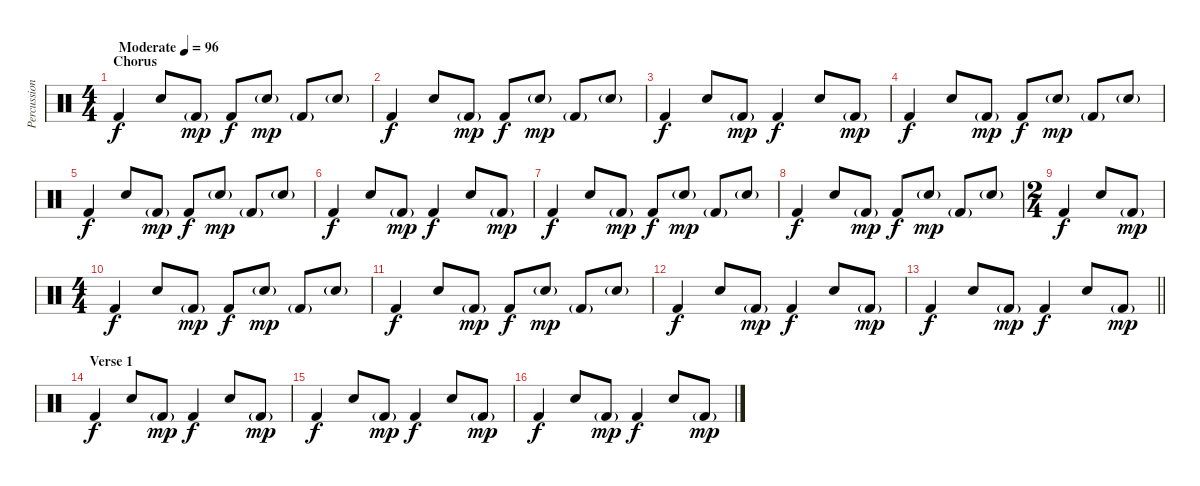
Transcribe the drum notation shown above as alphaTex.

\track ("Percussion" "Percussion") {instrument percussion}
\staff {score}
\articulation defaults
\ts (4 4)
\section ("" "Chorus")
\tempo (96 "Moderate")
\clef neutral
\ks c "Kick (hit) 2".4{dy f} "Snare (hit) 2".8 "Kick (hit) 2"{g}.8{dy mp} "Kick (hit) 2".8{dy f} "Snare (hit) 2"{g}.8{dy mp} "Kick (hit) 2"{g}.8 "Snare (hit) 2"{g}.8
|
"Kick (hit) 2".4{dy f} "Snare (hit) 2".8 "Kick (hit) 2"{g}.8{dy mp} "Kick (hit) 2".8{dy f} "Snare (hit) 2"{g}.8{dy mp} "Kick (hit) 2"{g}.8 "Snare (hit) 2"{g}.8 |
"Kick (hit) 2".4{dy f} "Snare (hit) 2".8 "Kick (hit) 2"{g}.8{dy mp} "Kick (hit) 2".4{dy f} "Snare (hit) 2".8 "Kick (hit) 2"{g}.8{dy mp} |
"Kick (hit) 2".4{dy f} "Snare (hit) 2".8 "Kick (hit) 2"{g}.8{dy mp} "Kick (hit) 2".8{dy f} "Snare (hit) 2"{g}.8{dy mp} "Kick (hit) 2"{g}.8 "Snare (hit) 2"{g}.8 |
"Kick (hit) 2".4{dy f} "Snare (hit) 2".8 "Kick (hit) 2"{g}.8{dy mp} "Kick (hit) 2".8{dy f} "Snare (hit) 2"{g}.8{dy mp} "Kick (hit) 2"{g}.8 "Snare (hit) 2"{g}.8 |
"Kick (hit) 2".4{dy f} "Snare (hit) 2".8 "Kick (hit) 2"{g}.8{dy mp} "Kick (hit) 2".4{dy f} "Snare (hit) 2".8 "Kick (hit) 2"{g}.8{dy mp} |
"Kick (hit) 2".4{dy f} "Snare (hit) 2".8 "Kick (hit) 2"{g}.8{dy mp} "Kick (hit) 2".8{dy f} "Snare (hit) 2"{g}.8{dy mp} "Kick (hit) 2"{g}.8 "Snare (hit) 2"{g}.8 |
"Kick (hit) 2".4{dy f} "Snare (hit) 2".8 "Kick (hit) 2"{g}.8{dy mp} "Kick (hit) 2".8{dy f} "Snare (hit) 2"{g}.8{dy mp} "Kick (hit) 2"{g}.8 "Snare (hit) 2"{g}.8 |
\ts (2 4)
"Kick (hit) 2".4{dy f} "Snare (hit) 2".8 "Kick (hit) 2"{g}.8{dy mp} |
\ts (4 4)
"Kick (hit) 2".4{dy f} "Snare (hit) 2".8 "Kick (hit) 2"{g}.8{dy mp} "Kick (hit) 2".8{dy f} "Snare (hit) 2"{g}.8{dy mp} "Kick (hit) 2"{g}.8 "Snare (hit) 2"{g}.8 |
"Kick (hit) 2".4{dy f} "Snare (hit) 2".8 "Kick (hit) 2"{g}.8{dy mp} "Kick (hit) 2".8{dy f} "Snare (hit) 2"{g}.8{dy mp} "Kick (hit) 2"{g}.8 "Snare (hit) 2"{g}.8 |
"Kick (hit) 2".4{dy f} "Snare (hit) 2".8 "Kick (hit) 2"{g}.8{dy mp} "Kick (hit) 2".4{dy f} "Snare (hit) 2".8 "Kick (hit) 2"{g}.8{dy mp} |
\barLineRight lightlight "Kick (hit) 2".4{dy f} "Snare (hit) 2".8 "Kick (hit) 2"{g}.8{dy mp} "Kick (hit) 2".4{dy f} "Snare (hit) 2".8 "Kick (hit) 2"{g}.8{dy mp}
|
\section ("" "Verse 1")
"Kick (hit) 2".4{dy f} "Snare (hit) 2".8 "Kick (hit) 2"{g}.8{dy mp} "Kick (hit) 2".4{dy f} "Snare (hit) 2".8 "Kick (hit) 2"{g}.8{dy mp} |
"Kick (hit) 2".4{dy f} "Snare (hit) 2".8 "Kick (hit) 2"{g}.8{dy mp} "Kick (hit) 2".4{dy f} "Snare (hit) 2".8 "Kick (hit) 2"{g}.8{dy mp} |
"Kick (hit) 2".4{dy f} "Snare (hit) 2".8 "Kick (hit) 2"{g}.8{dy mp} "Kick (hit) 2".4{dy f} "Snare (hit) 2".8 "Kick (hit) 2"{g}.8{dy mp}
